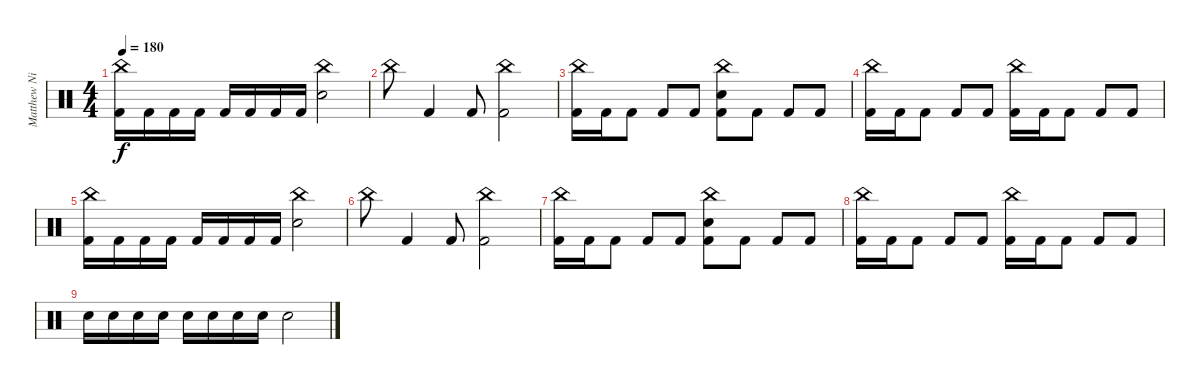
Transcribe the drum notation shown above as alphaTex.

\track ("Matthew Nicholls" "Matthew Ni") {instrument percussion}
\staff {score}
\articulation defaults
\ts (4 4)
\tempo 180
\clef neutral
\ks c
("China (hit)" "Kick (hit) 2").16{dy f} "Kick (hit) 2".16 "Kick (hit) 2".16 "Kick (hit) 2".16 "Kick (hit) 2".16 "Kick (hit) 2".16 "Kick (hit) 2".16 "Kick (hit) 2".16 ("China (hit)" "Electric Snare (hit)").2 |
"China (hit)".8 "Kick (hit) 2".4 "Kick (hit) 2".8 ("China (hit)" "Kick (hit) 2").2 |
("China (hit)" "Kick (hit) 2").16 "Kick (hit) 2".16 "Kick (hit) 2".8 "Kick (hit) 2".8 "Kick (hit) 2".8 ("China (hit)" "Electric Snare (hit)" "Kick (hit) 2").8 "Kick (hit) 2".8 "Kick (hit) 2".8 "Kick (hit) 2".8 |
("China (hit)" "Kick (hit) 2").16 "Kick (hit) 2".16 "Kick (hit) 2".8 "Kick (hit) 2".8 "Kick (hit) 2".8 ("China (hit)" "Kick (hit) 2").16 "Kick (hit) 2".16 "Kick (hit) 2".8 "Kick (hit) 2".8 "Kick (hit) 2".8 |
("China (hit)" "Kick (hit) 2").16 "Kick (hit) 2".16 "Kick (hit) 2".16 "Kick (hit) 2".16 "Kick (hit) 2".16 "Kick (hit) 2".16 "Kick (hit) 2".16 "Kick (hit) 2".16 ("China (hit)" "Electric Snare (hit)").2 |
"China (hit)".8 "Kick (hit) 2".4 "Kick (hit) 2".8 ("China (hit)" "Kick (hit) 2").2 |
("China (hit)" "Kick (hit) 2").16 "Kick (hit) 2".16 "Kick (hit) 2".8 "Kick (hit) 2".8 "Kick (hit) 2".8 ("China (hit)" "Electric Snare (hit)" "Kick (hit) 2").8 "Kick (hit) 2".8 "Kick (hit) 2".8 "Kick (hit) 2".8 |
("China (hit)" "Kick (hit) 2").16 "Kick (hit) 2".16 "Kick (hit) 2".8 "Kick (hit) 2".8 "Kick (hit) 2".8 ("China (hit)" "Kick (hit) 2").16 "Kick (hit) 2".16 "Kick (hit) 2".8 "Kick (hit) 2".8 "Kick (hit) 2".8 |
"Electric Snare (hit)".16 "Electric Snare (hit)".16 "Electric Snare (hit)".16 "Electric Snare (hit)".16 "Electric Snare (hit)".16 "Electric Snare (hit)".16 "Electric Snare (hit)".16 "Electric Snare (hit)".16 "Electric Snare (hit)".2
